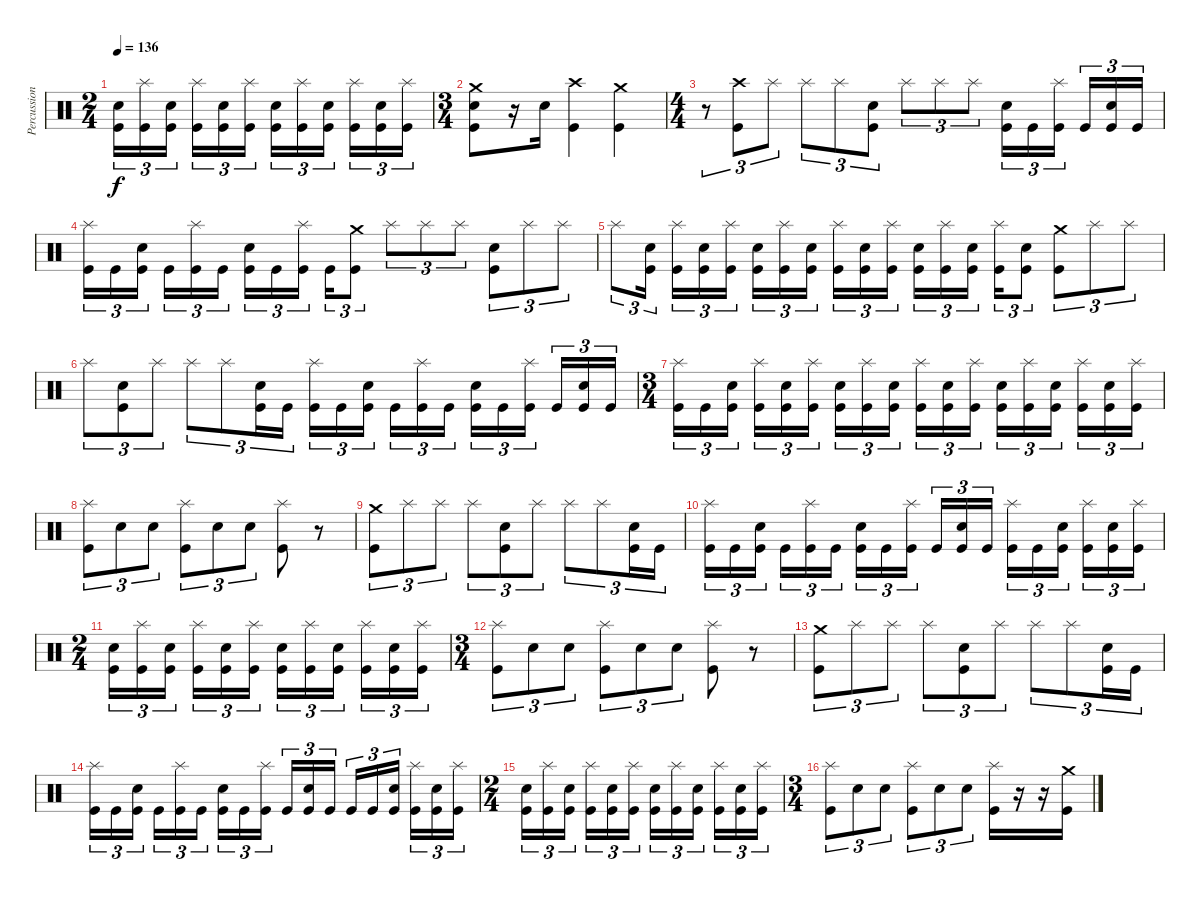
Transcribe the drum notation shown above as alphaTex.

\track ("Percussion" "Percussion") {instrument percussion}
\staff {score}
\articulation defaults
\ts (2 4)
\tempo 136
\clef neutral
\ks c
("Electric Snare (hit)" "Kick (hit)").16{tu (3 2) dy f} ("Splash (hit)" "Kick (hit)").16{tu (3 2)} ("Electric Snare (hit)" "Kick (hit)").16{tu (3 2)} ("Splash (hit)" "Kick (hit)").16{tu (3 2)} ("Electric Snare (hit)" "Kick (hit)").16{tu (3 2)} ("Splash (hit)" "Kick (hit)").16{tu (3 2)} ("Electric Snare (hit)" "Kick (hit)").16{tu (3 2)} ("Splash (hit)" "Kick (hit)").16{tu (3 2)} ("Electric Snare (hit)" "Kick (hit)").16{tu (3 2)} ("Splash (hit)" "Kick (hit)").16{tu (3 2)} ("Electric Snare (hit)" "Kick (hit)").16{tu (3 2)} ("Splash (hit)" "Kick (hit)").16{tu (3 2)} |
\ts (3 4)
("Crash medium (hit)" "Electric Snare (hit)" "Kick (hit)").8 r.16 "Electric Snare (hit)".16 ("Crash high (hit)" "Kick (hit)").4 ("Crash medium (hit)" "Kick (hit)").4 |
\ts (4 4)
r.8{tu (3 2)} ("Crash high (hit)" "Kick (hit)").8{tu (3 2)} "Splash (hit)".8{tu (3 2)} "Splash (hit)".8{tu (3 2)} "Splash (hit)".8{tu (3 2)} ("Electric Snare (hit)" "Kick (hit)").8{tu (3 2)} "Splash (hit)".8{tu (3 2)} "Splash (hit)".8{tu (3 2)} "Splash (hit)".8{tu (3 2)} ("Electric Snare (hit)" "Kick (hit)").16{tu (3 2)} "Kick (hit)".16{tu (3 2)} ("Splash (hit)" "Kick (hit)").16{tu (3 2)} "Kick (hit)".16{tu (3 2)} ("Electric Snare (hit)" "Kick (hit)").16{tu (3 2)} "Kick (hit)".16{tu (3 2)} |
("Splash (hit)" "Kick (hit)").16{tu (3 2)} "Kick (hit)".16{tu (3 2)} ("Electric Snare (hit)" "Kick (hit)").16{tu (3 2)} "Kick (hit)".16{tu (3 2)} ("Splash (hit)" "Kick (hit)").16{tu (3 2)} "Kick (hit)".16{tu (3 2)} ("Electric Snare (hit)" "Kick (hit)").16{tu (3 2)} "Kick (hit)".16{tu (3 2)} ("Splash (hit)" "Kick (hit)").16{tu (3 2)} "Kick (hit)".16{tu (3 2)} ("Crash medium (hit)" "Kick (hit)").8{tu (3 2)} "Splash (hit)".8{tu (3 2)} "Splash (hit)".8{tu (3 2)} "Splash (hit)".8{tu (3 2)} ("Electric Snare (hit)" "Kick (hit)").8{tu (3 2)} "Splash (hit)".8{tu (3 2)} "Splash (hit)".8{tu (3 2)} |
"Splash (hit)".8{tu (3 2)} ("Electric Snare (hit)" "Kick (hit)").16{tu (3 2)} ("Splash (hit)" "Kick (hit)").16{tu (3 2)} ("Electric Snare (hit)" "Kick (hit)").16{tu (3 2)} ("Splash (hit)" "Kick (hit)").16{tu (3 2)} ("Electric Snare (hit)" "Kick (hit)").16{tu (3 2)} ("Splash (hit)" "Kick (hit)").16{tu (3 2)} ("Electric Snare (hit)" "Kick (hit)").16{tu (3 2)} ("Splash (hit)" "Kick (hit)").16{tu (3 2)} ("Electric Snare (hit)" "Kick (hit)").16{tu (3 2)} ("Splash (hit)" "Kick (hit)").16{tu (3 2)} ("Electric Snare (hit)" "Kick (hit)").16{tu (3 2)} ("Splash (hit)" "Kick (hit)").16{tu (3 2)} ("Electric Snare (hit)" "Kick (hit)").16{tu (3 2)} ("Splash (hit)" "Kick (hit)").16{tu (3 2)} ("Electric Snare (hit)" "Kick (hit)").8{tu (3 2)} ("Crash medium (hit)" "Kick (hit)").8{tu (3 2)} "Splash (hit)".8{tu (3 2)} "Splash (hit)".8{tu (3 2)} |
"Splash (hit)".8{tu (3 2)} ("Electric Snare (hit)" "Kick (hit)").8{tu (3 2)} "Splash (hit)".8{tu (3 2)} "Splash (hit)".8{tu (3 2)} "Splash (hit)".8{tu (3 2)} ("Electric Snare (hit)" "Kick (hit)").16{tu (3 2)} "Kick (hit)".16{tu (3 2)} ("Splash (hit)" "Kick (hit)").16{tu (3 2)} "Kick (hit)".16{tu (3 2)} ("Electric Snare (hit)" "Kick (hit)").16{tu (3 2)} "Kick (hit)".16{tu (3 2)} ("Splash (hit)" "Kick (hit)").16{tu (3 2)} "Kick (hit)".16{tu (3 2)} ("Electric Snare (hit)" "Kick (hit)").16{tu (3 2)} "Kick (hit)".16{tu (3 2)} ("Splash (hit)" "Kick (hit)").16{tu (3 2)} "Kick (hit)".16{tu (3 2)} ("Electric Snare (hit)" "Kick (hit)").16{tu (3 2)} "Kick (hit)".16{tu (3 2)} |
\ts (3 4)
("Splash (hit)" "Kick (hit)").16{tu (3 2)} "Kick (hit)".16{tu (3 2)} ("Electric Snare (hit)" "Kick (hit)").16{tu (3 2)} ("Splash (hit)" "Kick (hit)").16{tu (3 2)} ("Electric Snare (hit)" "Kick (hit)").16{tu (3 2)} ("Splash (hit)" "Kick (hit)").16{tu (3 2)} ("Electric Snare (hit)" "Kick (hit)").16{tu (3 2)} ("Splash (hit)" "Kick (hit)").16{tu (3 2)} ("Electric Snare (hit)" "Kick (hit)").16{tu (3 2)} ("Splash (hit)" "Kick (hit)").16{tu (3 2)} ("Electric Snare (hit)" "Kick (hit)").16{tu (3 2)} ("Splash (hit)" "Kick (hit)").16{tu (3 2)} ("Electric Snare (hit)" "Kick (hit)").16{tu (3 2)} ("Splash (hit)" "Kick (hit)").16{tu (3 2)} ("Electric Snare (hit)" "Kick (hit)").16{tu (3 2)} ("Splash (hit)" "Kick (hit)").16{tu (3 2)} ("Electric Snare (hit)" "Kick (hit)").16{tu (3 2)} ("Splash (hit)" "Kick (hit)").16{tu (3 2)} |
("Splash (hit)" "Kick (hit)").8{tu (3 2)} "Electric Snare (hit)".8{tu (3 2)} "Electric Snare (hit)".8{tu (3 2)} ("Splash (hit)" "Kick (hit)").8{tu (3 2)} "Electric Snare (hit)".8{tu (3 2)} "Electric Snare (hit)".8{tu (3 2)} ("Splash (hit)" "Kick (hit)").8 r.8 |
("Crash medium (hit)" "Kick (hit)").8{tu (3 2)} "Splash (hit)".8{tu (3 2)} "Splash (hit)".8{tu (3 2)} "Splash (hit)".8{tu (3 2)} ("Electric Snare (hit)" "Kick (hit)").8{tu (3 2)} "Splash (hit)".8{tu (3 2)} "Splash (hit)".8{tu (3 2)} "Splash (hit)".8{tu (3 2)} ("Electric Snare (hit)" "Kick (hit)").16{tu (3 2)} "Kick (hit)".16{tu (3 2)} |
("Splash (hit)" "Kick (hit)").16{tu (3 2)} "Kick (hit)".16{tu (3 2)} ("Electric Snare (hit)" "Kick (hit)").16{tu (3 2)} "Kick (hit)".16{tu (3 2)} ("Splash (hit)" "Kick (hit)").16{tu (3 2)} "Kick (hit)".16{tu (3 2)} ("Electric Snare (hit)" "Kick (hit)").16{tu (3 2)} "Kick (hit)".16{tu (3 2)} ("Splash (hit)" "Kick (hit)").16{tu (3 2)} "Kick (hit)".16{tu (3 2)} ("Electric Snare (hit)" "Kick (hit)").16{tu (3 2)} "Kick (hit)".16{tu (3 2)} ("Splash (hit)" "Kick (hit)").16{tu (3 2)} "Kick (hit)".16{tu (3 2)} ("Electric Snare (hit)" "Kick (hit)").16{tu (3 2)} ("Splash (hit)" "Kick (hit)").16{tu (3 2)} ("Electric Snare (hit)" "Kick (hit)").16{tu (3 2)} ("Splash (hit)" "Kick (hit)").16{tu (3 2)} |
\ts (2 4)
("Electric Snare (hit)" "Kick (hit)").16{tu (3 2)} ("Splash (hit)" "Kick (hit)").16{tu (3 2)} ("Electric Snare (hit)" "Kick (hit)").16{tu (3 2)} ("Splash (hit)" "Kick (hit)").16{tu (3 2)} ("Electric Snare (hit)" "Kick (hit)").16{tu (3 2)} ("Splash (hit)" "Kick (hit)").16{tu (3 2)} ("Electric Snare (hit)" "Kick (hit)").16{tu (3 2)} ("Splash (hit)" "Kick (hit)").16{tu (3 2)} ("Electric Snare (hit)" "Kick (hit)").16{tu (3 2)} ("Splash (hit)" "Kick (hit)").16{tu (3 2)} ("Electric Snare (hit)" "Kick (hit)").16{tu (3 2)} ("Splash (hit)" "Kick (hit)").16{tu (3 2)} |
\ts (3 4)
("Splash (hit)" "Kick (hit)").8{tu (3 2)} "Electric Snare (hit)".8{tu (3 2)} "Electric Snare (hit)".8{tu (3 2)} ("Splash (hit)" "Kick (hit)").8{tu (3 2)} "Electric Snare (hit)".8{tu (3 2)} "Electric Snare (hit)".8{tu (3 2)} ("Splash (hit)" "Kick (hit)").8 r.8 |
("Crash medium (hit)" "Kick (hit)").8{tu (3 2)} "Splash (hit)".8{tu (3 2)} "Splash (hit)".8{tu (3 2)} "Splash (hit)".8{tu (3 2)} ("Electric Snare (hit)" "Kick (hit)").8{tu (3 2)} "Splash (hit)".8{tu (3 2)} "Splash (hit)".8{tu (3 2)} "Splash (hit)".8{tu (3 2)} ("Electric Snare (hit)" "Kick (hit)").16{tu (3 2)} "Kick (hit)".16{tu (3 2)} |
("Splash (hit)" "Kick (hit)").16{tu (3 2)} "Kick (hit)".16{tu (3 2)} ("Electric Snare (hit)" "Kick (hit)").16{tu (3 2)} "Kick (hit)".16{tu (3 2)} ("Splash (hit)" "Kick (hit)").16{tu (3 2)} "Kick (hit)".16{tu (3 2)} ("Electric Snare (hit)" "Kick (hit)").16{tu (3 2)} "Kick (hit)".16{tu (3 2)} ("Splash (hit)" "Kick (hit)").16{tu (3 2)} "Kick (hit)".16{tu (3 2)} ("Electric Snare (hit)" "Kick (hit)").16{tu (3 2)} "Kick (hit)".16{tu (3 2)} "Kick (hit)".16{tu (3 2)} "Kick (hit)".16{tu (3 2)} ("Electric Snare (hit)" "Kick (hit)").16{tu (3 2)} ("Splash (hit)" "Kick (hit)").16{tu (3 2)} ("Electric Snare (hit)" "Kick (hit)").16{tu (3 2)} ("Splash (hit)" "Kick (hit)").16{tu (3 2)} |
\ts (2 4)
("Electric Snare (hit)" "Kick (hit)").16{tu (3 2)} ("Splash (hit)" "Kick (hit)").16{tu (3 2)} ("Electric Snare (hit)" "Kick (hit)").16{tu (3 2)} ("Splash (hit)" "Kick (hit)").16{tu (3 2)} ("Electric Snare (hit)" "Kick (hit)").16{tu (3 2)} ("Splash (hit)" "Kick (hit)").16{tu (3 2)} ("Electric Snare (hit)" "Kick (hit)").16{tu (3 2)} ("Splash (hit)" "Kick (hit)").16{tu (3 2)} ("Electric Snare (hit)" "Kick (hit)").16{tu (3 2)} ("Splash (hit)" "Kick (hit)").16{tu (3 2)} ("Electric Snare (hit)" "Kick (hit)").16{tu (3 2)} ("Splash (hit)" "Kick (hit)").16{tu (3 2)} |
\ts (3 4)
("Splash (hit)" "Kick (hit)").8{tu (3 2)} "Electric Snare (hit)".8{tu (3 2)} "Electric Snare (hit)".8{tu (3 2)} ("Splash (hit)" "Kick (hit)").8{tu (3 2)} "Electric Snare (hit)".8{tu (3 2)} "Electric Snare (hit)".8{tu (3 2)} ("Splash (hit)" "Kick (hit)").16 r.16 r.16 ("Crash medium (hit)" "Kick (hit)").16
